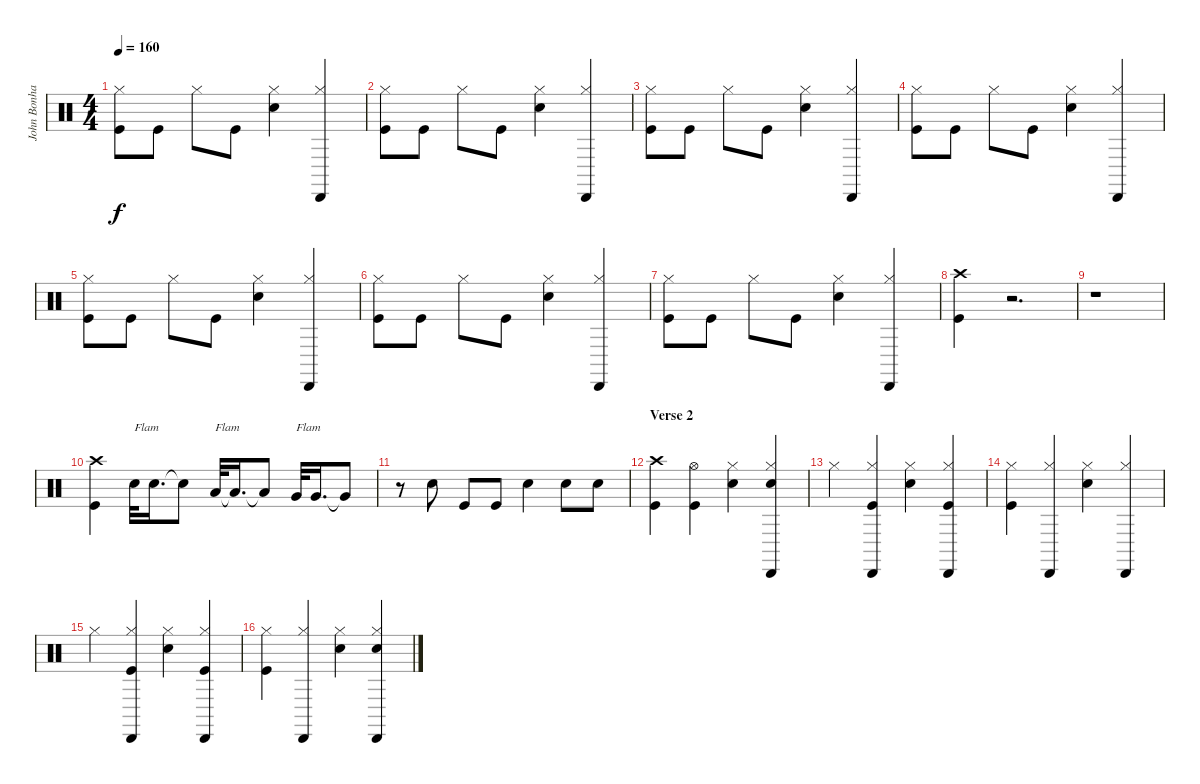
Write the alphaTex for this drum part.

\track ("John Bonham - Drums" "John Bonha") {instrument percussion}
\staff {score}
\articulation defaults
\ts (4 4)
\tempo 160
\clef neutral
\ks c
("Hi-Hat (closed)" "Kick (hit)").8{dy f} "Kick (hit)".8 "Hi-Hat (closed)".8 "Kick (hit)".8 ("Hi-Hat (closed)" "Snare (hit) 2").4 ("Hi-Hat (closed)" "Cabasa (hit)").4 |
("Hi-Hat (closed)" "Kick (hit)").8 "Kick (hit)".8 "Hi-Hat (closed)".8 "Kick (hit)".8 ("Hi-Hat (closed)" "Snare (hit) 2").4 ("Hi-Hat (closed)" "Cabasa (hit)").4 |
("Hi-Hat (closed)" "Kick (hit)").8 "Kick (hit)".8 "Hi-Hat (closed)".8 "Kick (hit)".8 ("Hi-Hat (closed)" "Snare (hit) 2").4 ("Hi-Hat (closed)" "Cabasa (hit)").4 |
("Hi-Hat (closed)" "Kick (hit)").8 "Kick (hit)".8 "Hi-Hat (closed)".8 "Kick (hit)".8 ("Hi-Hat (closed)" "Snare (hit) 2").4 ("Hi-Hat (closed)" "Cabasa (hit)").4 |
("Hi-Hat (closed)" "Kick (hit)").8 "Kick (hit)".8 "Hi-Hat (closed)".8 "Kick (hit)".8 ("Hi-Hat (closed)" "Snare (hit) 2").4 ("Hi-Hat (closed)" "Cabasa (hit)").4 |
("Hi-Hat (closed)" "Kick (hit)").8 "Kick (hit)".8 "Hi-Hat (closed)".8 "Kick (hit)".8 ("Hi-Hat (closed)" "Snare (hit) 2").4 ("Hi-Hat (closed)" "Cabasa (hit)").4 |
("Hi-Hat (closed)" "Kick (hit)").8 "Kick (hit)".8 "Hi-Hat (closed)".8 "Kick (hit)".8 ("Hi-Hat (closed)" "Snare (hit) 2").4 ("Hi-Hat (closed)" "Cabasa (hit)").4 |
("Crash high (hit)" "Kick (hit)").4 r.2{d} |
r.1 |
("Crash high (hit)" "Kick (hit)").4 "Snare (hit) 2".32{txt "Flam"} "Snare (hit) 2".16{d} "Snare (hit) 2"{t}.8 "Low Tom (hit)".32{txt "Flam"} "Low Tom (hit)"{t}.16{d} "Low Tom (hit)"{t}.8 "Very Low Tom (hit)".32{txt "Flam"} "Very Low Tom (hit)".16{d} "Very Low Tom (hit)"{t}.8 |
r.8 "Snare (hit) 2".8 "Kick (hit)".8 "Kick (hit)".8 "Snare (hit) 2".4 "Snare (hit) 2".8 "Snare (hit) 2".8 |
\section ("" "Verse 2")
("Kick (hit)" "Crash high (hit)").4 ("Kick (hit)" "Hi-Hat (open)").4 ("Snare (hit) 2" "Hi-Hat (closed)").4 ("Snare (hit) 2" "Hi-Hat (closed)" "Cabasa (hit)").4 |
"Hi-Hat (closed)".4 ("Hi-Hat (closed)" "Cabasa (hit)" "Kick (hit)").4 ("Snare (hit) 2" "Hi-Hat (closed)").4 ("Kick (hit)" "Hi-Hat (closed)" "Cabasa (hit)").4 |
("Kick (hit)" "Hi-Hat (closed)").4 ("Hi-Hat (closed)" "Cabasa (hit)").4 ("Snare (hit) 2" "Hi-Hat (closed)").4 ("Hi-Hat (closed)" "Cabasa (hit)").4 |
"Hi-Hat (closed)".4 ("Hi-Hat (closed)" "Kick (hit)" "Cabasa (hit)").4 ("Hi-Hat (closed)" "Snare (hit) 2").4 ("Hi-Hat (closed)" "Cabasa (hit)" "Kick (hit)").4 |
("Hi-Hat (closed)" "Kick (hit)").4 ("Hi-Hat (closed)" "Cabasa (hit)").4 ("Hi-Hat (closed)" "Snare (hit) 2").4 ("Hi-Hat (closed)" "Snare (hit) 2" "Cabasa (hit)").4
